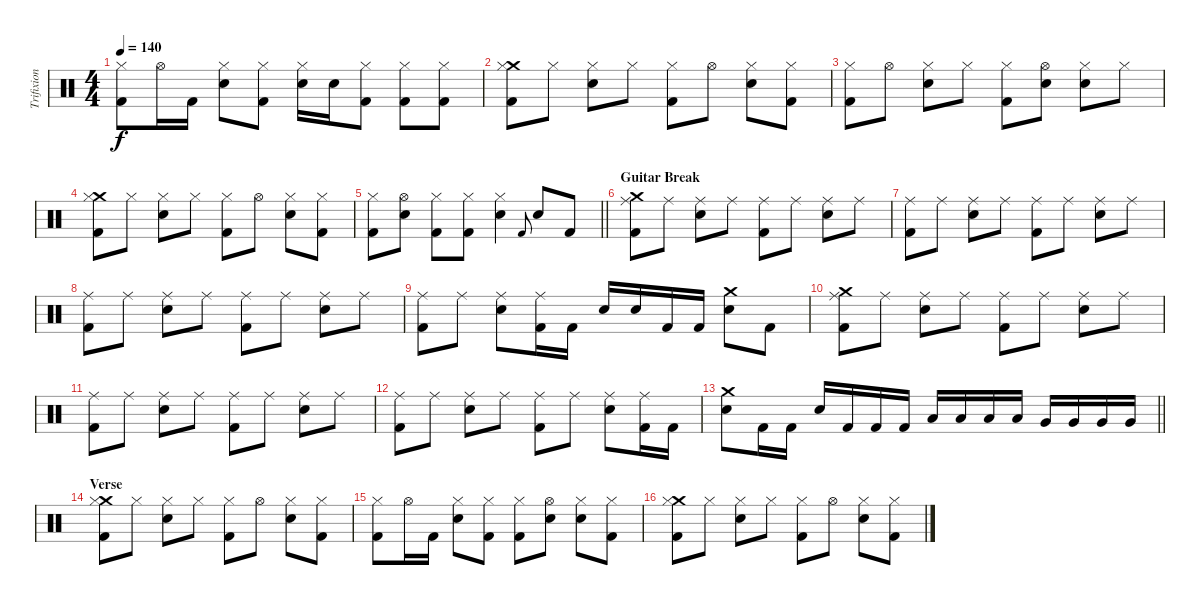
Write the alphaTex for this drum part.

\track ("Trifixion of the Horned King" "Trifixion ") {instrument percussion}
\staff {score}
\articulation defaults
\ts (4 4)
\tempo 140
\clef neutral
\ks c
("Hi-Hat (closed)" "Kick (hit) 2").8{dy f} "Hi-Hat (open)".16 "Kick (hit) 2".16 ("Hi-Hat (closed)" "Electric Snare (hit)").8 ("Hi-Hat (closed)" "Kick (hit) 2").8 ("Hi-Hat (closed)" "Electric Snare (hit)").16 "Electric Snare (hit)".16 ("Hi-Hat (closed)" "Kick (hit) 2").8 ("Hi-Hat (closed)" "Kick (hit) 2").8 ("Hi-Hat (closed)" "Kick (hit) 2").8 |
("Crash medium (hit)" "Hi-Hat (closed)" "Kick (hit) 2").8 "Hi-Hat (closed)".8 ("Hi-Hat (closed)" "Electric Snare (hit)").8 "Hi-Hat (closed)".8 ("Hi-Hat (closed)" "Kick (hit) 2").8 "Hi-Hat (open)".8 ("Hi-Hat (closed)" "Electric Snare (hit)").8 ("Hi-Hat (closed)" "Kick (hit) 2").8 |
("Hi-Hat (closed)" "Kick (hit) 2").8 "Hi-Hat (open)".8 ("Hi-Hat (closed)" "Electric Snare (hit)").8 "Hi-Hat (closed)".8 ("Hi-Hat (closed)" "Kick (hit) 2").8 ("Hi-Hat (open)" "Electric Snare (hit)").8 ("Hi-Hat (closed)" "Electric Snare (hit)").8 "Hi-Hat (closed)".8 |
("Crash medium (hit)" "Hi-Hat (closed)" "Kick (hit) 2").8 "Hi-Hat (closed)".8 ("Hi-Hat (closed)" "Electric Snare (hit)").8 "Hi-Hat (closed)".8 ("Hi-Hat (closed)" "Kick (hit) 2").8 "Hi-Hat (open)".8 ("Hi-Hat (closed)" "Electric Snare (hit)").8 ("Hi-Hat (closed)" "Kick (hit) 2").8 |
\barLineRight lightlight
("Hi-Hat (closed)" "Kick (hit) 2").8 ("Hi-Hat (open)" "Electric Snare (hit)").8 ("Hi-Hat (closed)" "Kick (hit) 2").8 ("Hi-Hat (closed)" "Kick (hit) 2").8 ("Hi-Hat (closed)" "Electric Snare (hit)").4 "Kick (hit) 2".8{gr onbeat} "Electric Snare (hit)".8 "Kick (hit) 2".8 |
\section ("" "Guitar Break")
("Crash medium (hit)" "Ride (middle)" "Kick (hit) 2").8 "Ride (middle)".8 ("Ride (middle)" "Electric Snare (hit)").8 "Ride (middle)".8 ("Ride (middle)" "Kick (hit) 2").8 "Ride (middle)".8 ("Ride (middle)" "Electric Snare (hit)").8 "Ride (middle)".8 |
("Ride (middle)" "Kick (hit) 2").8 "Ride (middle)".8 ("Ride (middle)" "Electric Snare (hit)").8 "Ride (middle)".8 ("Ride (middle)" "Kick (hit) 2").8 "Ride (middle)".8 ("Ride (middle)" "Electric Snare (hit)").8 "Ride (middle)".8 |
("Ride (middle)" "Kick (hit) 2").8 "Ride (middle)".8 ("Ride (middle)" "Electric Snare (hit)").8 "Ride (middle)".8 ("Ride (middle)" "Kick (hit) 2").8 "Ride (middle)".8 ("Ride (middle)" "Electric Snare (hit)").8 "Ride (middle)".8 |
("Ride (middle)" "Kick (hit) 2").8 "Ride (middle)".8 ("Ride (middle)" "Electric Snare (hit)").8 ("Ride (middle)" "Kick (hit) 2").16 "Kick (hit) 2".16 "Electric Snare (hit)".16 "Electric Snare (hit)".16 "Kick (hit) 2".16 "Kick (hit) 2".16 ("Crash medium (hit)" "Electric Snare (hit)").8 "Kick (hit) 2".8 |
("Crash medium (hit)" "Ride (middle)" "Kick (hit) 2").8 "Ride (middle)".8 ("Ride (middle)" "Electric Snare (hit)").8 "Ride (middle)".8 ("Ride (middle)" "Kick (hit) 2").8 "Ride (middle)".8 ("Ride (middle)" "Electric Snare (hit)").8 "Ride (middle)".8 |
("Ride (middle)" "Kick (hit) 2").8 "Ride (middle)".8 ("Ride (middle)" "Electric Snare (hit)").8 "Ride (middle)".8 ("Ride (middle)" "Kick (hit) 2").8 "Ride (middle)".8 ("Ride (middle)" "Electric Snare (hit)").8 "Ride (middle)".8 |
("Ride (middle)" "Kick (hit) 2").8 "Ride (middle)".8 ("Ride (middle)" "Electric Snare (hit)").8 "Ride (middle)".8 ("Ride (middle)" "Kick (hit) 2").8 "Ride (middle)".8 ("Ride (middle)" "Electric Snare (hit)").8 ("Ride (middle)" "Kick (hit) 2").16 "Kick (hit) 2".16 |
\barLineRight lightlight
("Crash medium (hit)" "Electric Snare (hit)").8 "Kick (hit) 2".16 "Kick (hit) 2".16 "Electric Snare (hit)".16 "Kick (hit) 2".16 "Kick (hit) 2".16 "Kick (hit) 2".16 "Low Tom (hit)".16 "Low Tom (hit)".16 "Low Tom (hit)".16 "Low Tom (hit)".16 "Very Low Tom (hit)".16 "Very Low Tom (hit)".16 "Very Low Tom (hit)".16 "Very Low Tom (hit)".16 |
\section ("" "Verse")
("Crash medium (hit)" "Hi-Hat (closed)" "Kick (hit) 2").8 "Hi-Hat (closed)".8 ("Hi-Hat (closed)" "Electric Snare (hit)").8 "Hi-Hat (closed)".8 ("Hi-Hat (closed)" "Kick (hit) 2").8 "Hi-Hat (open)".8 ("Hi-Hat (closed)" "Electric Snare (hit)").8 ("Hi-Hat (closed)" "Kick (hit) 2").8 |
("Hi-Hat (closed)" "Kick (hit) 2").8 "Hi-Hat (open)".16 "Kick (hit) 2".16 ("Hi-Hat (closed)" "Electric Snare (hit)").8 ("Hi-Hat (closed)" "Kick (hit) 2").8 ("Hi-Hat (closed)" "Kick (hit) 2").8 ("Hi-Hat (open)" "Electric Snare (hit)").8 ("Hi-Hat (closed)" "Electric Snare (hit)").8 ("Hi-Hat (closed)" "Kick (hit) 2").8 |
("Crash medium (hit)" "Hi-Hat (closed)" "Kick (hit) 2").8 "Hi-Hat (closed)".8 ("Hi-Hat (closed)" "Electric Snare (hit)").8 "Hi-Hat (closed)".8 ("Hi-Hat (closed)" "Kick (hit) 2").8 "Hi-Hat (open)".8 ("Hi-Hat (closed)" "Electric Snare (hit)").8 ("Hi-Hat (closed)" "Kick (hit) 2").8
